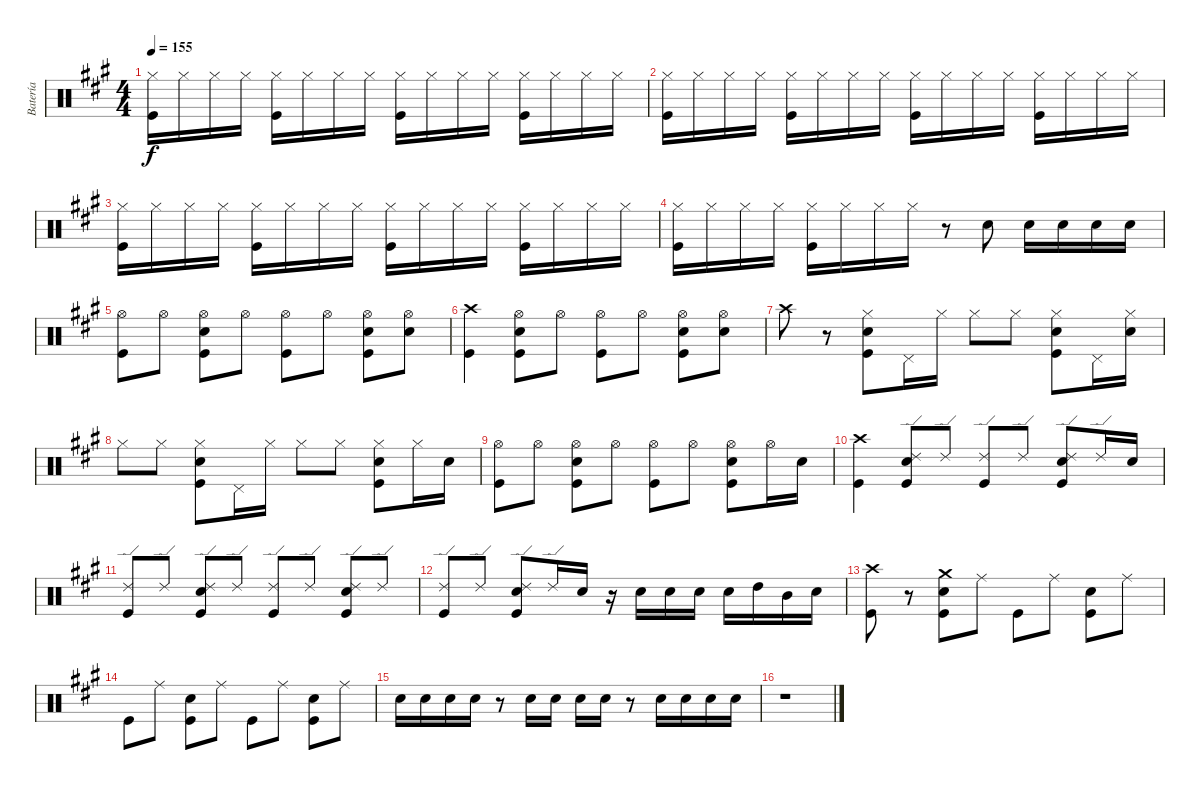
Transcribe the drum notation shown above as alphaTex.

\track ("Batería" "Batería") {instrument percussion}
\staff {score}
\articulation defaults
\ts (4 4)
\tempo 155
\clef neutral
\ks f#minor
("Hi-Hat (closed)" "Kick (hit)").16{dy f} "Hi-Hat (closed)".16 "Hi-Hat (closed)".16 "Hi-Hat (closed)".16 ("Hi-Hat (closed)" "Kick (hit)").16 "Hi-Hat (closed)".16 "Hi-Hat (closed)".16 "Hi-Hat (closed)".16 ("Hi-Hat (closed)" "Kick (hit)").16 "Hi-Hat (closed)".16 "Hi-Hat (closed)".16 "Hi-Hat (closed)".16 ("Hi-Hat (closed)" "Kick (hit)").16 "Hi-Hat (closed)".16 "Hi-Hat (closed)".16 "Hi-Hat (closed)".16 |
("Hi-Hat (closed)" "Kick (hit)").16 "Hi-Hat (closed)".16 "Hi-Hat (closed)".16 "Hi-Hat (closed)".16 ("Hi-Hat (closed)" "Kick (hit)").16 "Hi-Hat (closed)".16 "Hi-Hat (closed)".16 "Hi-Hat (closed)".16 ("Hi-Hat (closed)" "Kick (hit)").16 "Hi-Hat (closed)".16 "Hi-Hat (closed)".16 "Hi-Hat (closed)".16 ("Hi-Hat (closed)" "Kick (hit)").16 "Hi-Hat (closed)".16 "Hi-Hat (closed)".16 "Hi-Hat (closed)".16 |
("Hi-Hat (closed)" "Kick (hit)").16 "Hi-Hat (closed)".16 "Hi-Hat (closed)".16 "Hi-Hat (closed)".16 ("Hi-Hat (closed)" "Kick (hit)").16 "Hi-Hat (closed)".16 "Hi-Hat (closed)".16 "Hi-Hat (closed)".16 ("Hi-Hat (closed)" "Kick (hit)").16 "Hi-Hat (closed)".16 "Hi-Hat (closed)".16 "Hi-Hat (closed)".16 ("Hi-Hat (closed)" "Kick (hit)").16 "Hi-Hat (closed)".16 "Hi-Hat (closed)".16 "Hi-Hat (closed)".16 |
("Hi-Hat (closed)" "Kick (hit)").16 "Hi-Hat (closed)".16 "Hi-Hat (closed)".16 "Hi-Hat (closed)".16 ("Hi-Hat (closed)" "Kick (hit)").16 "Hi-Hat (closed)".16 "Hi-Hat (closed)".16 "Hi-Hat (closed)".16 r.8 "Snare (hit) 2".8 "Snare (hit) 2".16 "Snare (hit) 2".16 "Snare (hit) 2".16 "Snare (hit) 2".16 |
("Hi-Hat (open)" "Kick (hit)").8 "Hi-Hat (open)".8 ("Snare (hit) 2" "Hi-Hat (open)" "Kick (hit)").8 "Hi-Hat (open)".8 ("Hi-Hat (open)" "Kick (hit)").8 "Hi-Hat (open)".8 ("Snare (hit) 2" "Hi-Hat (open)" "Kick (hit)").8 ("Snare (hit) 2" "Hi-Hat (open)").8 |
("Crash high (hit)" "Kick (hit)").4 ("Snare (hit) 2" "Hi-Hat (open)" "Kick (hit)").8 "Hi-Hat (open)".8 ("Hi-Hat (open)" "Kick (hit)").8 "Hi-Hat (open)".8 ("Snare (hit) 2" "Hi-Hat (open)" "Kick (hit)").8 ("Snare (hit) 2" "Hi-Hat (open)").8 |
"Crash high (hit)".8 r.8 ("Snare (hit) 2" "Hi-Hat (closed)" "Kick (hit)").8 "Pedal Hi-Hat (hit)".16 "Hi-Hat (closed)".16 "Hi-Hat (closed)".8 "Hi-Hat (closed)".8 ("Snare (hit) 2" "Hi-Hat (closed)" "Kick (hit)").8 "Pedal Hi-Hat (hit)".16 ("Snare (hit) 2" "Hi-Hat (closed)").16 |
"Hi-Hat (closed)".8 "Hi-Hat (closed)".8 ("Snare (hit) 2" "Hi-Hat (closed)" "Kick (hit)").8 "Pedal Hi-Hat (hit)".16 "Hi-Hat (closed)".16 "Hi-Hat (closed)".8 "Hi-Hat (closed)".8 ("Snare (hit) 2" "Hi-Hat (closed)" "Kick (hit)").8 "Hi-Hat (closed)".16 "Snare (hit) 2".16 |
("Hi-Hat (open)" "Kick (hit)").8 "Hi-Hat (open)".8 ("Snare (hit) 2" "Hi-Hat (open)" "Kick (hit)").8 "Hi-Hat (open)".8 ("Hi-Hat (open)" "Kick (hit)").8 "Hi-Hat (open)".8 ("Snare (hit) 2" "Hi-Hat (open)" "Kick (hit)").8 "Hi-Hat (open)".16 "Snare (hit) 2".16 |
("Crash high (hit)" "Kick (hit)").4 ("Snare (hit) 2" "Ride (edge) 2" "Kick (hit)").8 "Ride (edge) 2".8 ("Ride (edge) 2" "Kick (hit)").8 "Ride (edge) 2".8 ("Snare (hit) 2" "Ride (edge) 2" "Kick (hit)").8 "Ride (edge) 2".16 "Snare (hit) 2".16 |
("Ride (edge) 2" "Kick (hit)").8 "Ride (edge) 2".8 ("Snare (hit) 2" "Ride (edge) 2" "Kick (hit)").8 "Ride (edge) 2".8 ("Ride (edge) 2" "Kick (hit)").8 "Ride (edge) 2".8 ("Snare (hit) 2" "Ride (edge) 2" "Kick (hit)").8 "Ride (edge) 2".8 |
("Ride (edge) 2" "Kick (hit)").8 "Ride (edge) 2".8 ("Snare (hit) 2" "Ride (edge) 2" "Kick (hit)").8 "Ride (edge) 2".16 "Snare (hit) 2".16 r.16 "Snare (hit) 2".16 "Snare (hit) 2".16 "Snare (hit) 2".16 "Snare (hit) 2".16 "High Tom (hit)".16 "Mid Tom (hit)".16 "Snare (hit) 2".16 |
("Crash high (hit)" "Kick (hit)").8 r.8 ("Snare (hit) 2" "Crash medium (hit)" "Kick (hit)").8 "Ride (middle)".8 "Kick (hit)".8 "Ride (middle)".8 ("Snare (hit) 2" "Kick (hit)").8 "Ride (middle)".8 |
"Kick (hit)".8 "Ride (middle)".8 ("Snare (hit) 2" "Kick (hit)").8 "Ride (middle)".8 "Kick (hit)".8 "Ride (middle)".8 ("Snare (hit) 2" "Kick (hit)").8 "Ride (middle)".8 |
"Snare (hit) 2".16 "Snare (hit) 2".16 "Snare (hit) 2".16 "Snare (hit) 2".16 r.8 "Snare (hit) 2".16 "Snare (hit) 2".16 "Snare (hit) 2".16 "Snare (hit) 2".16 r.8 "Snare (hit) 2".16 "Snare (hit) 2".16 "Snare (hit) 2".16 "Snare (hit) 2".16 |
r.1
